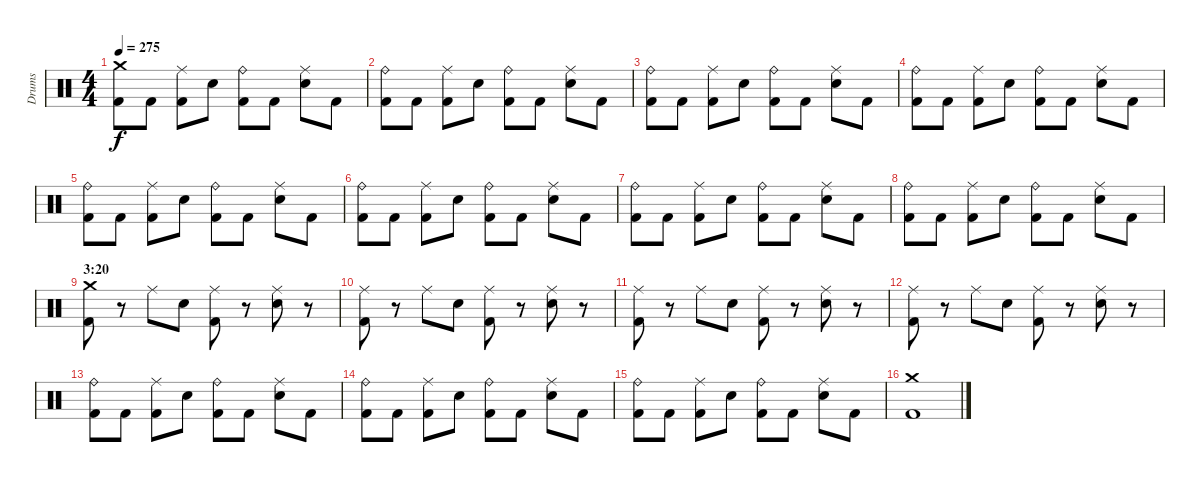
\track ("Drums" "Drums") {instrument percussion}
\staff {score}
\articulation defaults
\ts (4 4)
\tempo 275
\clef neutral
\ks c
("Crash medium (hit)" "Kick (hit) 2").8{dy f} "Kick (hit) 2".8 ("Ride (middle)" "Kick (hit) 2").8 "Electric Snare (hit)".8 ("Ride (bell)" "Kick (hit) 2").8 "Kick (hit) 2".8 ("Ride (middle)" "Electric Snare (hit)").8 "Kick (hit) 2".8 |
("Ride (bell)" "Kick (hit) 2").8 "Kick (hit) 2".8 ("Ride (middle)" "Kick (hit) 2").8 "Electric Snare (hit)".8 ("Ride (bell)" "Kick (hit) 2").8 "Kick (hit) 2".8 ("Ride (middle)" "Electric Snare (hit)").8 "Kick (hit) 2".8 |
("Ride (bell)" "Kick (hit) 2").8 "Kick (hit) 2".8 ("Ride (middle)" "Kick (hit) 2").8 "Electric Snare (hit)".8 ("Ride (bell)" "Kick (hit) 2").8 "Kick (hit) 2".8 ("Ride (middle)" "Electric Snare (hit)").8 "Kick (hit) 2".8 |
("Ride (bell)" "Kick (hit) 2").8 "Kick (hit) 2".8 ("Ride (middle)" "Kick (hit) 2").8 "Electric Snare (hit)".8 ("Ride (bell)" "Kick (hit) 2").8 "Kick (hit) 2".8 ("Ride (middle)" "Electric Snare (hit)").8 "Kick (hit) 2".8 |
("Ride (bell)" "Kick (hit) 2").8 "Kick (hit) 2".8 ("Ride (middle)" "Kick (hit) 2").8 "Electric Snare (hit)".8 ("Ride (bell)" "Kick (hit) 2").8 "Kick (hit) 2".8 ("Ride (middle)" "Electric Snare (hit)").8 "Kick (hit) 2".8 |
("Ride (bell)" "Kick (hit) 2").8 "Kick (hit) 2".8 ("Ride (middle)" "Kick (hit) 2").8 "Electric Snare (hit)".8 ("Ride (bell)" "Kick (hit) 2").8 "Kick (hit) 2".8 ("Ride (middle)" "Electric Snare (hit)").8 "Kick (hit) 2".8 |
("Ride (bell)" "Kick (hit) 2").8 "Kick (hit) 2".8 ("Ride (middle)" "Kick (hit) 2").8 "Electric Snare (hit)".8 ("Ride (bell)" "Kick (hit) 2").8 "Kick (hit) 2".8 ("Ride (middle)" "Electric Snare (hit)").8 "Kick (hit) 2".8 |
("Ride (bell)" "Kick (hit) 2").8 "Kick (hit) 2".8 ("Ride (middle)" "Kick (hit) 2").8 "Electric Snare (hit)".8 ("Ride (bell)" "Kick (hit) 2").8 "Kick (hit) 2".8 ("Ride (middle)" "Electric Snare (hit)").8 "Kick (hit) 2".8 |
\section ("" "3:20")
("Crash medium (hit)" "Kick (hit) 2").8 r.8 "Ride (middle)".8 "Electric Snare (hit)".8 ("Ride (middle)" "Kick (hit) 2").8 r.8 ("Ride (middle)" "Electric Snare (hit)").8 r.8 |
("Ride (middle)" "Kick (hit) 2").8 r.8 "Ride (middle)".8 "Electric Snare (hit)".8 ("Ride (middle)" "Kick (hit) 2").8 r.8 ("Ride (middle)" "Electric Snare (hit)").8 r.8 |
("Ride (middle)" "Kick (hit) 2").8 r.8 "Ride (middle)".8 "Electric Snare (hit)".8 ("Ride (middle)" "Kick (hit) 2").8 r.8 ("Ride (middle)" "Electric Snare (hit)").8 r.8 |
("Ride (middle)" "Kick (hit) 2").8 r.8 "Ride (middle)".8 "Electric Snare (hit)".8 ("Ride (middle)" "Kick (hit) 2").8 r.8 ("Ride (middle)" "Electric Snare (hit)").8 r.8 |
("Ride (bell)" "Kick (hit) 2").8 "Kick (hit) 2".8 ("Ride (middle)" "Kick (hit) 2").8 "Electric Snare (hit)".8 ("Ride (bell)" "Kick (hit) 2").8 "Kick (hit) 2".8 ("Ride (middle)" "Electric Snare (hit)").8 "Kick (hit) 2".8 |
("Ride (bell)" "Kick (hit) 2").8 "Kick (hit) 2".8 ("Ride (middle)" "Kick (hit) 2").8 "Electric Snare (hit)".8 ("Ride (bell)" "Kick (hit) 2").8 "Kick (hit) 2".8 ("Ride (middle)" "Electric Snare (hit)").8 "Kick (hit) 2".8 |
("Ride (bell)" "Kick (hit) 2").8 "Kick (hit) 2".8 ("Ride (middle)" "Kick (hit) 2").8 "Electric Snare (hit)".8 ("Ride (bell)" "Kick (hit) 2").8 "Kick (hit) 2".8 ("Ride (middle)" "Electric Snare (hit)").8 "Kick (hit) 2".8 |
("Crash medium (hit)" "Kick (hit) 2").1
